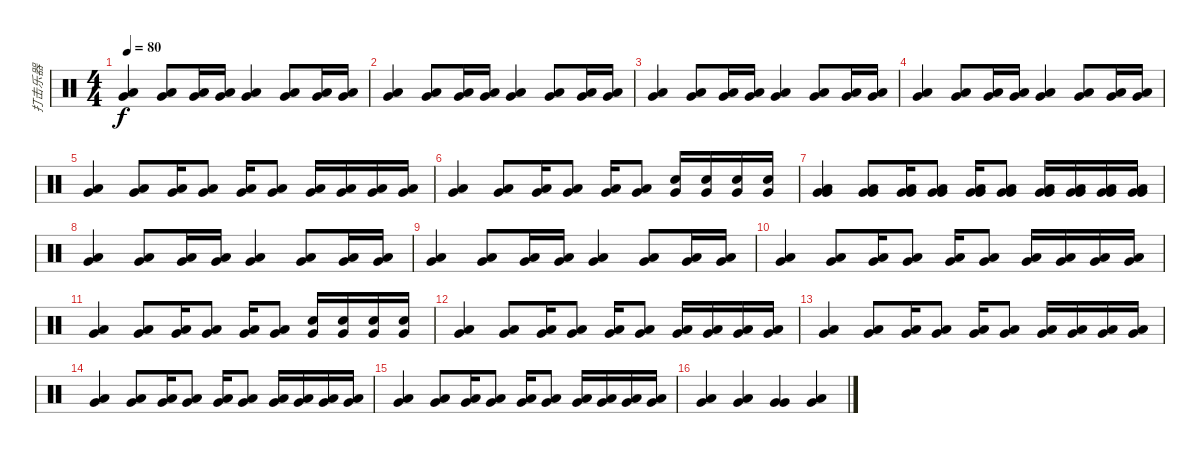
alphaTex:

\track ("打击乐器" "打击乐器") {instrument percussion}
\staff {score}
\articulation defaults
\ts (4 4)
\tempo 80
\clef neutral
\ks c
("Very Low Tom (hit)" "Low Floor Tom (hit)").4{dy f} ("Very Low Tom (hit)" "Low Floor Tom (hit)").8 ("Very Low Tom (hit)" "Low Floor Tom (hit)").16 ("Very Low Tom (hit)" "Low Floor Tom (hit)").16 ("Very Low Tom (hit)" "Low Floor Tom (hit)").4 ("Very Low Tom (hit)" "Low Floor Tom (hit)").8 ("Very Low Tom (hit)" "Low Floor Tom (hit)").16 ("Very Low Tom (hit)" "Low Floor Tom (hit)").16 |
("Very Low Tom (hit)" "Low Floor Tom (hit)").4 ("Very Low Tom (hit)" "Low Floor Tom (hit)").8 ("Very Low Tom (hit)" "Low Floor Tom (hit)").16 ("Very Low Tom (hit)" "Low Floor Tom (hit)").16 ("Very Low Tom (hit)" "Low Floor Tom (hit)").4 ("Very Low Tom (hit)" "Low Floor Tom (hit)").8 ("Very Low Tom (hit)" "Low Floor Tom (hit)").16 ("Very Low Tom (hit)" "Low Floor Tom (hit)").16 |
("Very Low Tom (hit)" "Low Floor Tom (hit)").4 ("Very Low Tom (hit)" "Low Floor Tom (hit)").8 ("Very Low Tom (hit)" "Low Floor Tom (hit)").16 ("Very Low Tom (hit)" "Low Floor Tom (hit)").16 ("Very Low Tom (hit)" "Low Floor Tom (hit)").4 ("Very Low Tom (hit)" "Low Floor Tom (hit)").8 ("Very Low Tom (hit)" "Low Floor Tom (hit)").16 ("Very Low Tom (hit)" "Low Floor Tom (hit)").16 |
("Very Low Tom (hit)" "Low Floor Tom (hit)").4 ("Very Low Tom (hit)" "Low Floor Tom (hit)").8 ("Very Low Tom (hit)" "Low Floor Tom (hit)").16 ("Very Low Tom (hit)" "Low Floor Tom (hit)").16 ("Very Low Tom (hit)" "Low Floor Tom (hit)").4 ("Very Low Tom (hit)" "Low Floor Tom (hit)").8 ("Very Low Tom (hit)" "Low Floor Tom (hit)").16 ("Very Low Tom (hit)" "Low Floor Tom (hit)").16 |
("Very Low Tom (hit)" "Low Floor Tom (hit)").4 ("Very Low Tom (hit)" "Low Floor Tom (hit)").8 ("Very Low Tom (hit)" "Low Floor Tom (hit)").16 ("Very Low Tom (hit)" "Low Floor Tom (hit)").8 ("Very Low Tom (hit)" "Low Floor Tom (hit)").16 ("Very Low Tom (hit)" "Low Floor Tom (hit)").8 ("Very Low Tom (hit)" "Low Floor Tom (hit)").16 ("Very Low Tom (hit)" "Low Floor Tom (hit)").16 ("Very Low Tom (hit)" "Low Floor Tom (hit)").16 ("Very Low Tom (hit)" "Low Floor Tom (hit)").16 |
("Very Low Tom (hit)" "Low Floor Tom (hit)").4 ("Very Low Tom (hit)" "Low Floor Tom (hit)").8 ("Very Low Tom (hit)" "Low Floor Tom (hit)").16 ("Very Low Tom (hit)" "Low Floor Tom (hit)").8 ("Very Low Tom (hit)" "Low Floor Tom (hit)").16 ("Low Floor Tom (hit)" "Very Low Tom (hit)").8 ("Electric Snare (hit)" "Very Low Tom (hit)").16 ("Very Low Tom (hit)" "Electric Snare (hit)").16 ("Very Low Tom (hit)" "Electric Snare (hit)").16 ("Electric Snare (hit)" "Very Low Tom (hit)").16 |
("Very Low Tom (hit)" "Low Floor Tom (hit)" "Very Low Tom (hit)").4 ("Very Low Tom (hit)" "Low Floor Tom (hit)" "Very Low Tom (hit)").8 ("Very Low Tom (hit)" "Low Floor Tom (hit)" "Very Low Tom (hit)").16 ("Very Low Tom (hit)" "Low Floor Tom (hit)" "Very Low Tom (hit)").8 ("Very Low Tom (hit)" "Low Floor Tom (hit)" "Very Low Tom (hit)").16 ("Very Low Tom (hit)" "Low Floor Tom (hit)" "Very Low Tom (hit)").8 ("Very Low Tom (hit)" "Low Floor Tom (hit)" "Very Low Tom (hit)").16 ("Very Low Tom (hit)" "Low Floor Tom (hit)" "Very Low Tom (hit)").16 ("Very Low Tom (hit)" "Low Floor Tom (hit)" "Very Low Tom (hit)").16 ("Very Low Tom (hit)" "Low Floor Tom (hit)" "Very Low Tom (hit)").16 |
("Very Low Tom (hit)" "Low Floor Tom (hit)").4 ("Very Low Tom (hit)" "Low Floor Tom (hit)").8 ("Very Low Tom (hit)" "Low Floor Tom (hit)").16 ("Very Low Tom (hit)" "Low Floor Tom (hit)").16 ("Very Low Tom (hit)" "Low Floor Tom (hit)").4 ("Very Low Tom (hit)" "Low Floor Tom (hit)").8 ("Very Low Tom (hit)" "Low Floor Tom (hit)").16 ("Very Low Tom (hit)" "Low Floor Tom (hit)").16 |
("Very Low Tom (hit)" "Low Floor Tom (hit)").4 ("Very Low Tom (hit)" "Low Floor Tom (hit)").8 ("Very Low Tom (hit)" "Low Floor Tom (hit)").16 ("Very Low Tom (hit)" "Low Floor Tom (hit)").16 ("Very Low Tom (hit)" "Low Floor Tom (hit)").4 ("Very Low Tom (hit)" "Low Floor Tom (hit)").8 ("Very Low Tom (hit)" "Low Floor Tom (hit)").16 ("Very Low Tom (hit)" "Low Floor Tom (hit)").16 |
("Very Low Tom (hit)" "Low Floor Tom (hit)").4 ("Very Low Tom (hit)" "Low Floor Tom (hit)").8 ("Very Low Tom (hit)" "Low Floor Tom (hit)").16 ("Very Low Tom (hit)" "Low Floor Tom (hit)").8 ("Very Low Tom (hit)" "Low Floor Tom (hit)").16 ("Very Low Tom (hit)" "Low Floor Tom (hit)").8 ("Very Low Tom (hit)" "Low Floor Tom (hit)").16 ("Very Low Tom (hit)" "Low Floor Tom (hit)").16 ("Very Low Tom (hit)" "Low Floor Tom (hit)").16 ("Very Low Tom (hit)" "Low Floor Tom (hit)").16 |
("Very Low Tom (hit)" "Low Floor Tom (hit)").4 ("Very Low Tom (hit)" "Low Floor Tom (hit)").8 ("Very Low Tom (hit)" "Low Floor Tom (hit)").16 ("Very Low Tom (hit)" "Low Floor Tom (hit)").8 ("Very Low Tom (hit)" "Low Floor Tom (hit)").16 ("Low Floor Tom (hit)" "Very Low Tom (hit)").8 ("Electric Snare (hit)" "Very Low Tom (hit)").16 ("Very Low Tom (hit)" "Electric Snare (hit)").16 ("Very Low Tom (hit)" "Electric Snare (hit)").16 ("Electric Snare (hit)" "Very Low Tom (hit)").16 |
("Very Low Tom (hit)" "Low Floor Tom (hit)").4 ("Very Low Tom (hit)" "Low Floor Tom (hit)").8 ("Very Low Tom (hit)" "Low Floor Tom (hit)").16 ("Very Low Tom (hit)" "Low Floor Tom (hit)").8 ("Very Low Tom (hit)" "Low Floor Tom (hit)").16 ("Very Low Tom (hit)" "Low Floor Tom (hit)").8 ("Very Low Tom (hit)" "Low Floor Tom (hit)").16 ("Very Low Tom (hit)" "Low Floor Tom (hit)").16 ("Very Low Tom (hit)" "Low Floor Tom (hit)").16 ("Very Low Tom (hit)" "Low Floor Tom (hit)").16 |
("Very Low Tom (hit)" "Low Floor Tom (hit)").4 ("Very Low Tom (hit)" "Low Floor Tom (hit)").8 ("Very Low Tom (hit)" "Low Floor Tom (hit)").16 ("Very Low Tom (hit)" "Low Floor Tom (hit)").8 ("Very Low Tom (hit)" "Low Floor Tom (hit)").16 ("Very Low Tom (hit)" "Low Floor Tom (hit)").8 ("Very Low Tom (hit)" "Low Floor Tom (hit)").16 ("Very Low Tom (hit)" "Low Floor Tom (hit)").16 ("Very Low Tom (hit)" "Low Floor Tom (hit)").16 ("Very Low Tom (hit)" "Low Floor Tom (hit)").16 |
("Very Low Tom (hit)" "Low Floor Tom (hit)").4 ("Very Low Tom (hit)" "Low Floor Tom (hit)").8 ("Very Low Tom (hit)" "Low Floor Tom (hit)").16 ("Very Low Tom (hit)" "Low Floor Tom (hit)").8 ("Very Low Tom (hit)" "Low Floor Tom (hit)").16 ("Very Low Tom (hit)" "Low Floor Tom (hit)").8 ("Very Low Tom (hit)" "Low Floor Tom (hit)").16 ("Very Low Tom (hit)" "Low Floor Tom (hit)").16 ("Very Low Tom (hit)" "Low Floor Tom (hit)").16 ("Very Low Tom (hit)" "Low Floor Tom (hit)").16 |
("Very Low Tom (hit)" "Low Floor Tom (hit)").4 ("Very Low Tom (hit)" "Low Floor Tom (hit)").8 ("Very Low Tom (hit)" "Low Floor Tom (hit)").16 ("Very Low Tom (hit)" "Low Floor Tom (hit)").8 ("Very Low Tom (hit)" "Low Floor Tom (hit)").16 ("Very Low Tom (hit)" "Low Floor Tom (hit)").8 ("Very Low Tom (hit)" "Low Floor Tom (hit)").16 ("Very Low Tom (hit)" "Low Floor Tom (hit)").16 ("Very Low Tom (hit)" "Low Floor Tom (hit)").16 ("Very Low Tom (hit)" "Low Floor Tom (hit)").16 |
("Very Low Tom (hit)" "Low Floor Tom (hit)").4 ("Low Floor Tom (hit)" "Very Low Tom (hit)").4 ("Very Low Tom (hit)" "Very Low Tom (hit)").4 ("Very Low Tom (hit)" "Low Floor Tom (hit)").4
